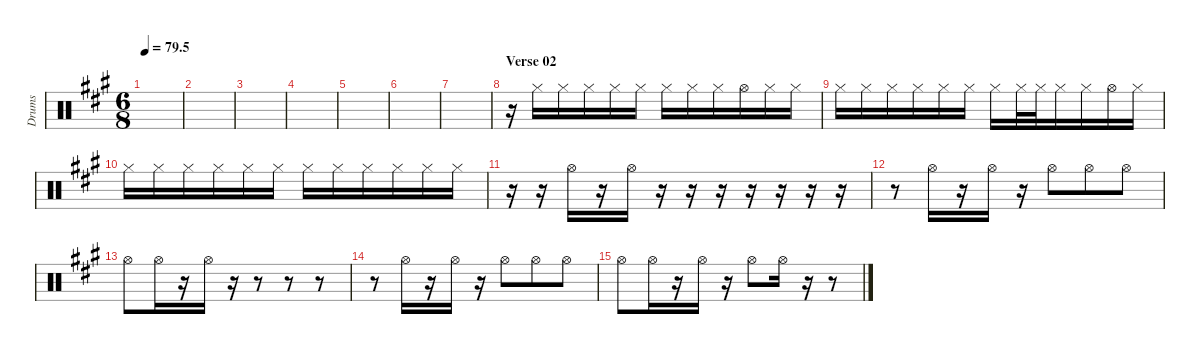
\defaultSystemsLayout 4
\hideDynamics
\bracketExtendMode nobrackets
\otherSystemsTrackNameOrientation horizontal
\track ("Hihat" "Drums") {instrument percussion}
\staff {score}
\articulation defaults
\ts (6 8)
\tempo
79.5
\accidentals auto
\clef neutral
\ottava regular
\simile none
\scale
0.333333
\ks a
|
\scale
0.333333 |
\scale
0.333333 |
\scale
0.333333 |
\scale
0.333333 |
\scale
0.333333 |
\scale
0.333333 |
\section ("" "Verse 02")
\scale
0.333333 r.16 "Hi-Hat (closed)"{acc forcenatural}.16 "Hi-Hat (closed)"{acc forcenatural}.16 "Hi-Hat (closed)"{acc forcenatural}.16 "Hi-Hat (closed)"{acc forcenatural}.16 "Hi-Hat (closed)"{acc forcenatural}.16 "Hi-Hat (closed)"{acc forcenatural}.16 "Hi-Hat (closed)"{acc forcenatural}.16 "Hi-Hat (closed)"{acc forcenatural}.16 "Hi-Hat (open)"{acc forcenatural}.16 "Hi-Hat (closed)"{acc forcenatural}.16 "Hi-Hat (closed)"{acc forcenatural}.16 |
\scale
0.333333 "Hi-Hat (closed)"{acc forcenatural}.16 "Hi-Hat (closed)"{acc forcenatural}.16 "Hi-Hat (closed)"{acc forcenatural}.16 "Hi-Hat (closed)"{acc forcenatural}.16 "Hi-Hat (closed)"{acc forcenatural}.16 "Hi-Hat (closed)"{acc forcenatural}.16 "Hi-Hat (closed)"{acc forcenatural}.16 "Hi-Hat (closed)"{acc forcenatural}.32 "Hi-Hat (closed)"{acc forcenatural}.32 "Hi-Hat (closed)"{acc forcenatural}.16 "Hi-Hat (closed)"{acc forcenatural}.16 "Hi-Hat (open)"{acc forcenatural}.16 "Hi-Hat (closed)"{acc forcenatural}.16 |
\scale
0.333333 "Hi-Hat (closed)"{acc forcenatural}.16 "Hi-Hat (closed)"{acc forcenatural}.16 "Hi-Hat (closed)"{acc forcenatural}.16 "Hi-Hat (closed)"{acc forcenatural}.16 "Hi-Hat (closed)"{acc forcenatural}.16 "Hi-Hat (closed)"{acc forcenatural}.16 "Hi-Hat (closed)"{acc forcenatural}.16 "Hi-Hat (closed)"{acc forcenatural}.16 "Hi-Hat (closed)"{acc forcenatural}.16 "Hi-Hat (closed)"{acc forcenatural}.16 "Hi-Hat (closed)"{acc forcenatural}.16 "Hi-Hat (closed)"{acc forcenatural}.16 |
\scale
0.333333 r.16 r.16 "Hi-Hat (open)"{acc forcenatural}.16 r.16 "Hi-Hat (open)"{acc forcenatural}.16 r.16 r.16 r.16 r.16 r.16 r.16 r.16 |
\scale
0.333333 r.8 "Hi-Hat (open)"{acc forcenatural}.16 r.16 "Hi-Hat (open)"{acc forcenatural}.16 r.16 "Hi-Hat (open)"{acc forcenatural}.8 "Hi-Hat (open)"{acc forcenatural}.8 "Hi-Hat (open)"{acc forcenatural}.8 |
\scale
0.333333 "Hi-Hat (open)"{acc forcenatural}.8 "Hi-Hat (open)"{acc forcenatural}.16 r.16 "Hi-Hat (open)"{acc forcenatural}.16 r.16 r.8 r.8 r.8 |
\scale
0.333333 r.8 "Hi-Hat (open)"{acc forcenatural}.16 r.16 "Hi-Hat (open)"{acc forcenatural}.16 r.16 "Hi-Hat (open)"{acc forcenatural}.8 "Hi-Hat (open)"{acc forcenatural}.8 "Hi-Hat (open)"{acc forcenatural}.8 |
\scale
0.333333 "Hi-Hat (open)"{acc forcenatural}.8 "Hi-Hat (open)"{acc forcenatural}.16 r.16 "Hi-Hat (open)"{acc forcenatural}.16 r.16 "Hi-Hat (open)"{acc forcenatural}.8 "Hi-Hat (open)"{acc forcenatural}.16 r.16 r.8 |
\scale
0.333333
